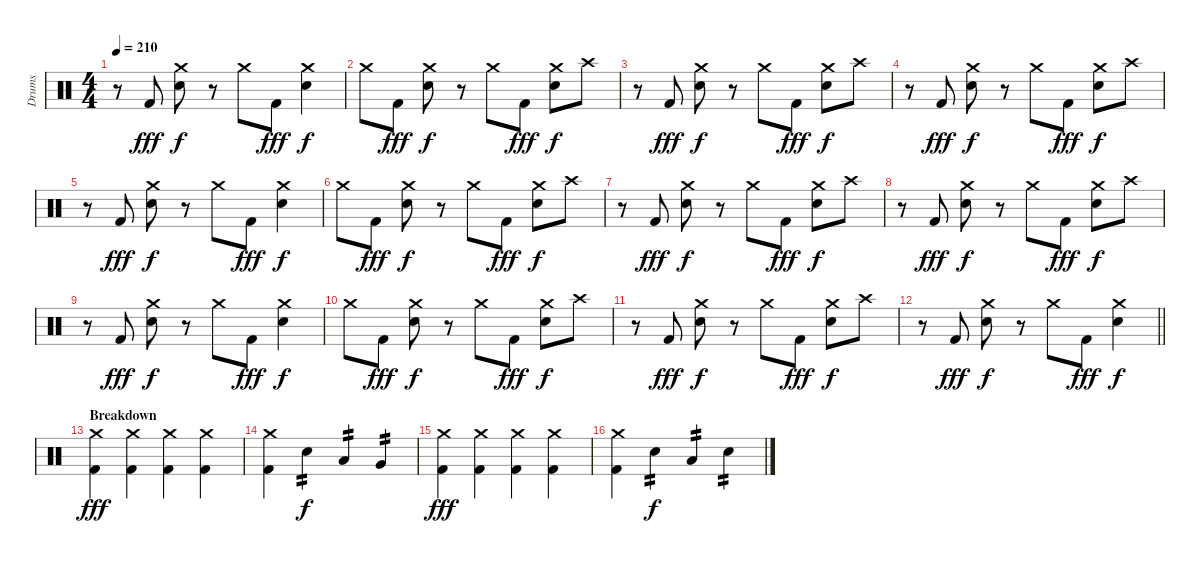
\track ("Drums" "Drums") {instrument percussion}
\staff {score}
\articulation defaults
\ts (4 4)
\tempo 210
\clef neutral
\ks c
r.8{dy f} "Kick (hit) 2".8{dy fff} ("Crash medium (hit)" "Electric Snare (hit)").8{dy f} r.8 "Crash medium (hit)".8 "Kick (hit) 2".8{dy fff} ("Crash medium (hit)" "Electric Snare (hit)").4{dy f} |
"Crash medium (hit)".8 "Kick (hit) 2".8{dy fff} ("Crash medium (hit)" "Electric Snare (hit)").8{dy f} r.8 "Crash medium (hit)".8 "Kick (hit) 2".8{dy fff} ("Crash medium (hit)" "Electric Snare (hit)").8{dy f} "Crash high (hit)".8 |
r.8 "Kick (hit) 2".8{dy fff} ("Crash medium (hit)" "Electric Snare (hit)").8{dy f} r.8 "Crash medium (hit)".8 "Kick (hit) 2".8{dy fff} ("Crash medium (hit)" "Electric Snare (hit)").8{dy f} "Crash high (hit)".8 |
r.8 "Kick (hit) 2".8{dy fff} ("Crash medium (hit)" "Electric Snare (hit)").8{dy f} r.8 "Crash medium (hit)".8 "Kick (hit) 2".8{dy fff} ("Crash medium (hit)" "Electric Snare (hit)").8{dy f} "Crash high (hit)".8 |
r.8 "Kick (hit) 2".8{dy fff} ("Crash medium (hit)" "Electric Snare (hit)").8{dy f} r.8 "Crash medium (hit)".8 "Kick (hit) 2".8{dy fff} ("Crash medium (hit)" "Electric Snare (hit)").4{dy f} |
"Crash medium (hit)".8 "Kick (hit) 2".8{dy fff} ("Crash medium (hit)" "Electric Snare (hit)").8{dy f} r.8 "Crash medium (hit)".8 "Kick (hit) 2".8{dy fff} ("Crash medium (hit)" "Electric Snare (hit)").8{dy f} "Crash high (hit)".8 |
r.8 "Kick (hit) 2".8{dy fff} ("Crash medium (hit)" "Electric Snare (hit)").8{dy f} r.8 "Crash medium (hit)".8 "Kick (hit) 2".8{dy fff} ("Crash medium (hit)" "Electric Snare (hit)").8{dy f} "Crash high (hit)".8 |
r.8 "Kick (hit) 2".8{dy fff} ("Crash medium (hit)" "Electric Snare (hit)").8{dy f} r.8 "Crash medium (hit)".8 "Kick (hit) 2".8{dy fff} ("Crash medium (hit)" "Electric Snare (hit)").8{dy f} "Crash high (hit)".8 |
r.8 "Kick (hit) 2".8{dy fff} ("Crash medium (hit)" "Electric Snare (hit)").8{dy f} r.8 "Crash medium (hit)".8 "Kick (hit) 2".8{dy fff} ("Crash medium (hit)" "Electric Snare (hit)").4{dy f} |
"Crash medium (hit)".8 "Kick (hit) 2".8{dy fff} ("Crash medium (hit)" "Electric Snare (hit)").8{dy f} r.8 "Crash medium (hit)".8 "Kick (hit) 2".8{dy fff} ("Crash medium (hit)" "Electric Snare (hit)").8{dy f} "Crash high (hit)".8 |
r.8 "Kick (hit) 2".8{dy fff} ("Crash medium (hit)" "Electric Snare (hit)").8{dy f} r.8 "Crash medium (hit)".8 "Kick (hit) 2".8{dy fff} ("Crash medium (hit)" "Electric Snare (hit)").8{dy f} "Crash high (hit)".8 |
\barLineRight lightlight
r.8 "Kick (hit) 2".8{dy fff} ("Crash medium (hit)" "Electric Snare (hit)").8{dy f} r.8 "Crash medium (hit)".8 "Kick (hit) 2".8{dy fff} ("Crash medium (hit)" "Electric Snare (hit)").4{dy f} |
\section ("" "Breakdown")
("Crash medium (hit)" "Kick (hit) 2").4{dy fff} ("Crash medium (hit)" "Kick (hit) 2").4 ("Crash medium (hit)" "Kick (hit) 2").4 ("Crash medium (hit)" "Kick (hit) 2").4 |
("Crash medium (hit)" "Kick (hit) 2").4 "Electric Snare (hit)".4{tp 2 dy f} "Low Tom (hit)".4{tp 2} "Very Low Tom (hit)".4{tp 2} |
("Crash medium (hit)" "Kick (hit) 2").4{dy fff} ("Crash medium (hit)" "Kick (hit) 2").4 ("Crash medium (hit)" "Kick (hit) 2").4 ("Crash medium (hit)" "Kick (hit) 2").4 |
("Crash medium (hit)" "Kick (hit) 2").4 "Electric Snare (hit)".4{tp 2 dy f} "Low Tom (hit)".4{tp 2} "Electric Snare (hit)".4{tp 2}
